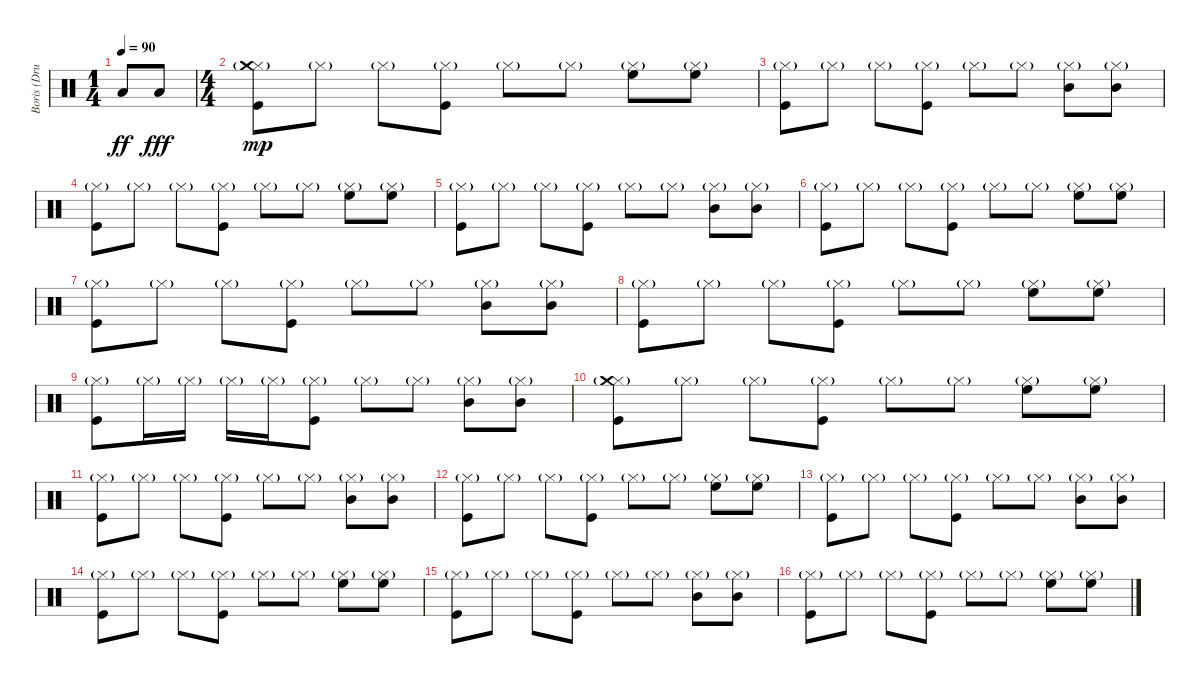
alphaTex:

\track ("Boris (Drums)" "Boris (Dru") {instrument percussion}
\staff {score}
\articulation defaults
\ts (1 4)
\tempo 90
\clef neutral
\ks c "Low Tom (hit)".8{dy ff} "Low Tom (hit)".8{dy fff}
|
\ts (4 4)
("Kick (hit)" "Hi-Hat (closed)"{g} "Crash medium (hit)").8{dy mp} "Hi-Hat (closed)"{g}.8 "Hi-Hat (closed)"{g}.8 ("Kick (hit)" "Hi-Hat (closed)"{g}).8 "Hi-Hat (closed)"{g}.8 "Hi-Hat (closed)"{g}.8 ("High Floor Tom (hit)" "Hi-Hat (closed)"{g}).8 ("High Floor Tom (hit)" "Hi-Hat (closed)"{g}).8 |
("Kick (hit)" "Hi-Hat (closed)"{g}).8 "Hi-Hat (closed)"{g}.8 "Hi-Hat (closed)"{g}.8 ("Kick (hit)" "Hi-Hat (closed)"{g}).8 "Hi-Hat (closed)"{g}.8 "Hi-Hat (closed)"{g}.8 ("Mid Tom (hit)" "Hi-Hat (closed)"{g}).8 ("Mid Tom (hit)" "Hi-Hat (closed)"{g}).8 |
("Kick (hit)" "Hi-Hat (closed)"{g}).8 "Hi-Hat (closed)"{g}.8 "Hi-Hat (closed)"{g}.8 ("Kick (hit)" "Hi-Hat (closed)"{g}).8 "Hi-Hat (closed)"{g}.8 "Hi-Hat (closed)"{g}.8 ("High Floor Tom (hit)" "Hi-Hat (closed)"{g}).8 ("High Floor Tom (hit)" "Hi-Hat (closed)"{g}).8 |
("Kick (hit)" "Hi-Hat (closed)"{g}).8 "Hi-Hat (closed)"{g}.8 "Hi-Hat (closed)"{g}.8 ("Kick (hit)" "Hi-Hat (closed)"{g}).8 "Hi-Hat (closed)"{g}.8 "Hi-Hat (closed)"{g}.8 ("Mid Tom (hit)" "Hi-Hat (closed)"{g}).8 ("Mid Tom (hit)" "Hi-Hat (closed)"{g}).8 |
("Kick (hit)" "Hi-Hat (closed)"{g}).8 "Hi-Hat (closed)"{g}.8 "Hi-Hat (closed)"{g}.8 ("Kick (hit)" "Hi-Hat (closed)"{g}).8 "Hi-Hat (closed)"{g}.8 "Hi-Hat (closed)"{g}.8 ("High Floor Tom (hit)" "Hi-Hat (closed)"{g}).8 ("High Floor Tom (hit)" "Hi-Hat (closed)"{g}).8 |
("Kick (hit)" "Hi-Hat (closed)"{g}).8 "Hi-Hat (closed)"{g}.8 "Hi-Hat (closed)"{g}.8 ("Kick (hit)" "Hi-Hat (closed)"{g}).8 "Hi-Hat (closed)"{g}.8 "Hi-Hat (closed)"{g}.8 ("Mid Tom (hit)" "Hi-Hat (closed)"{g}).8 ("Mid Tom (hit)" "Hi-Hat (closed)"{g}).8 |
("Kick (hit)" "Hi-Hat (closed)"{g}).8 "Hi-Hat (closed)"{g}.8 "Hi-Hat (closed)"{g}.8 ("Kick (hit)" "Hi-Hat (closed)"{g}).8 "Hi-Hat (closed)"{g}.8 "Hi-Hat (closed)"{g}.8 ("High Floor Tom (hit)" "Hi-Hat (closed)"{g}).8 ("High Floor Tom (hit)" "Hi-Hat (closed)"{g}).8 |
("Kick (hit)" "Hi-Hat (closed)"{g}).8 "Hi-Hat (closed)"{g}.16 "Hi-Hat (closed)"{g}.16 "Hi-Hat (closed)"{g}.16 "Hi-Hat (closed)"{g}.16 ("Kick (hit)" "Hi-Hat (closed)"{g}).8 "Hi-Hat (closed)"{g}.8 "Hi-Hat (closed)"{g}.8 ("Mid Tom (hit)" "Hi-Hat (closed)"{g}).8 ("Mid Tom (hit)" "Hi-Hat (closed)"{g}).8 |
("Kick (hit)" "Hi-Hat (closed)"{g} "Crash medium (hit)").8 "Hi-Hat (closed)"{g}.8 "Hi-Hat (closed)"{g}.8 ("Kick (hit)" "Hi-Hat (closed)"{g}).8 "Hi-Hat (closed)"{g}.8 "Hi-Hat (closed)"{g}.8 ("High Floor Tom (hit)" "Hi-Hat (closed)"{g}).8 ("High Floor Tom (hit)" "Hi-Hat (closed)"{g}).8 |
("Kick (hit)" "Hi-Hat (closed)"{g}).8 "Hi-Hat (closed)"{g}.8 "Hi-Hat (closed)"{g}.8 ("Kick (hit)" "Hi-Hat (closed)"{g}).8 "Hi-Hat (closed)"{g}.8 "Hi-Hat (closed)"{g}.8 ("Mid Tom (hit)" "Hi-Hat (closed)"{g}).8 ("Mid Tom (hit)" "Hi-Hat (closed)"{g}).8 |
("Kick (hit)" "Hi-Hat (closed)"{g}).8 "Hi-Hat (closed)"{g}.8 "Hi-Hat (closed)"{g}.8 ("Kick (hit)" "Hi-Hat (closed)"{g}).8 "Hi-Hat (closed)"{g}.8 "Hi-Hat (closed)"{g}.8 ("High Floor Tom (hit)" "Hi-Hat (closed)"{g}).8 ("High Floor Tom (hit)" "Hi-Hat (closed)"{g}).8 |
("Kick (hit)" "Hi-Hat (closed)"{g}).8 "Hi-Hat (closed)"{g}.8 "Hi-Hat (closed)"{g}.8 ("Kick (hit)" "Hi-Hat (closed)"{g}).8 "Hi-Hat (closed)"{g}.8 "Hi-Hat (closed)"{g}.8 ("Mid Tom (hit)" "Hi-Hat (closed)"{g}).8 ("Mid Tom (hit)" "Hi-Hat (closed)"{g}).8 |
("Kick (hit)" "Hi-Hat (closed)"{g}).8 "Hi-Hat (closed)"{g}.8 "Hi-Hat (closed)"{g}.8 ("Kick (hit)" "Hi-Hat (closed)"{g}).8 "Hi-Hat (closed)"{g}.8 "Hi-Hat (closed)"{g}.8 ("High Floor Tom (hit)" "Hi-Hat (closed)"{g}).8 ("High Floor Tom (hit)" "Hi-Hat (closed)"{g}).8 |
("Kick (hit)" "Hi-Hat (closed)"{g}).8 "Hi-Hat (closed)"{g}.8 "Hi-Hat (closed)"{g}.8 ("Kick (hit)" "Hi-Hat (closed)"{g}).8 "Hi-Hat (closed)"{g}.8 "Hi-Hat (closed)"{g}.8 ("Mid Tom (hit)" "Hi-Hat (closed)"{g}).8 ("Mid Tom (hit)" "Hi-Hat (closed)"{g}).8 |
("Kick (hit)" "Hi-Hat (closed)"{g}).8 "Hi-Hat (closed)"{g}.8 "Hi-Hat (closed)"{g}.8 ("Kick (hit)" "Hi-Hat (closed)"{g}).8 "Hi-Hat (closed)"{g}.8 "Hi-Hat (closed)"{g}.8 ("High Floor Tom (hit)" "Hi-Hat (closed)"{g}).8 ("High Floor Tom (hit)" "Hi-Hat (closed)"{g}).8
